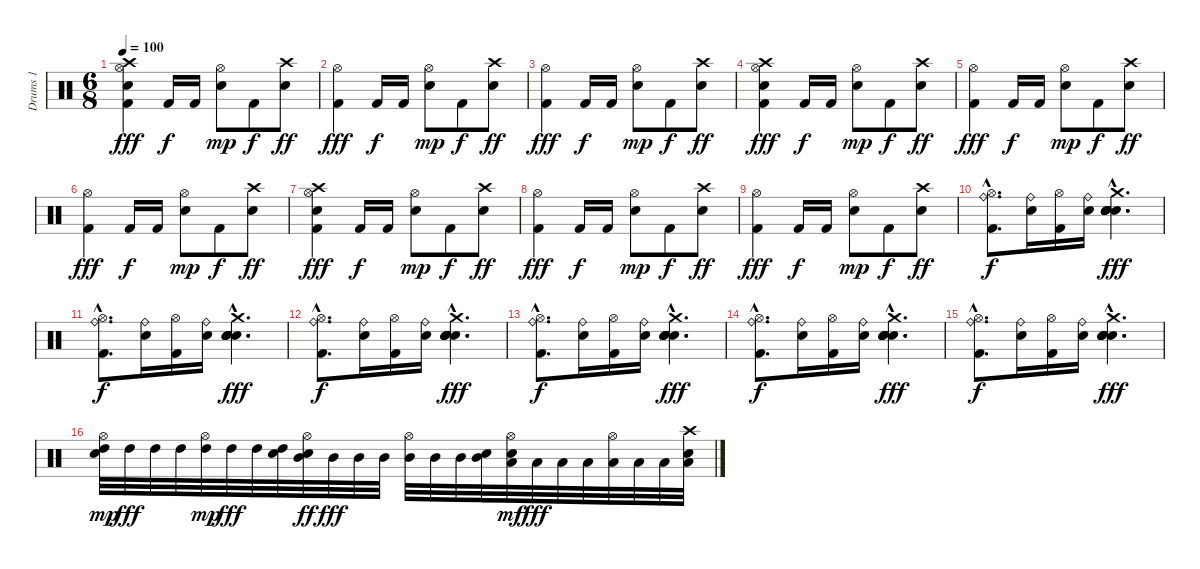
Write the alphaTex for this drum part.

\track ("Drums 1" "Drums 1") {instrument percussion}
\staff {score}
\articulation defaults
\ts (6 8)
\tempo 100
\clef neutral
\ks c
("Kick (hit) 2" "Snare (hit) 2" "Crash high (hit)" "Hi-Hat (open)").4{dy fff} "Kick (hit) 2".16{dy f} "Kick (hit) 2".16 ("Snare (hit) 2" "Hi-Hat (open)").8{dy mp} "Kick (hit) 2".8{dy f} ("Snare (hit) 2" "Crash high (hit)").8{dy ff} |
("Kick (hit) 2" "Hi-Hat (open)").4{dy fff} "Kick (hit) 2".16{dy f} "Kick (hit) 2".16 ("Snare (hit) 2" "Hi-Hat (open)").8{dy mp} "Kick (hit) 2".8{dy f} ("Snare (hit) 2" "Crash high (hit)").8{dy ff} |
("Kick (hit) 2" "Hi-Hat (open)").4{dy fff} "Kick (hit) 2".16{dy f} "Kick (hit) 2".16 ("Snare (hit) 2" "Hi-Hat (open)").8{dy mp} "Kick (hit) 2".8{dy f} ("Snare (hit) 2" "Crash high (hit)").8{dy ff} |
("Kick (hit) 2" "Snare (hit) 2" "Crash high (hit)" "Hi-Hat (open)").4{dy fff} "Kick (hit) 2".16{dy f} "Kick (hit) 2".16 ("Snare (hit) 2" "Hi-Hat (open)").8{dy mp} "Kick (hit) 2".8{dy f} ("Snare (hit) 2" "Crash high (hit)").8{dy ff} |
("Kick (hit) 2" "Hi-Hat (open)").4{dy fff} "Kick (hit) 2".16{dy f} "Kick (hit) 2".16 ("Snare (hit) 2" "Hi-Hat (open)").8{dy mp} "Kick (hit) 2".8{dy f} ("Snare (hit) 2" "Crash high (hit)").8{dy ff} |
("Kick (hit) 2" "Hi-Hat (open)").4{dy fff} "Kick (hit) 2".16{dy f} "Kick (hit) 2".16 ("Snare (hit) 2" "Hi-Hat (open)").8{dy mp} "Kick (hit) 2".8{dy f} ("Snare (hit) 2" "Crash high (hit)").8{dy ff} |
("Kick (hit) 2" "Snare (hit) 2" "Crash high (hit)" "Hi-Hat (open)").4{dy fff} "Kick (hit) 2".16{dy f} "Kick (hit) 2".16 ("Snare (hit) 2" "Hi-Hat (open)").8{dy mp} "Kick (hit) 2".8{dy f} ("Snare (hit) 2" "Crash high (hit)").8{dy ff} |
("Kick (hit) 2" "Hi-Hat (open)").4{dy fff} "Kick (hit) 2".16{dy f} "Kick (hit) 2".16 ("Snare (hit) 2" "Hi-Hat (open)").8{dy mp} "Kick (hit) 2".8{dy f} ("Snare (hit) 2" "Crash high (hit)").8{dy ff} |
("Kick (hit) 2" "Hi-Hat (open)").4{dy fff} "Kick (hit) 2".16{dy f} "Kick (hit) 2".16 ("Snare (hit) 2" "Hi-Hat (open)").8{dy mp} "Kick (hit) 2".8{dy f} ("Snare (hit) 2" "Crash high (hit)").8{dy ff} |
("Kick (hit) 2"{hac} "Ride (bell)"{hac} "Hi-Hat (open)"{hac}).8{d dy f} ("Snare (hit) 2" "Ride (bell)").16 ("Kick (hit) 2" "Hi-Hat (open)").16 ("Snare (hit) 2" "Ride (bell)").16 ("Snare (hit) 2"{hac} "Snare (hit) 2"{hac} "Snare (hit) 2"{hac} "Snare (hit) 2"{hac} "Snare (hit) 2"{hac} "Crash medium (hit)"{hac}).4{d bu 480 dy fff} |
("Kick (hit) 2"{hac} "Ride (bell)"{hac} "Hi-Hat (open)"{hac}).8{d dy f} ("Snare (hit) 2" "Ride (bell)").16 ("Kick (hit) 2" "Hi-Hat (open)").16 ("Snare (hit) 2" "Ride (bell)").16 ("Snare (hit) 2"{hac} "Snare (hit) 2"{hac} "Snare (hit) 2"{hac} "Snare (hit) 2"{hac} "Snare (hit) 2"{hac} "Crash medium (hit)"{hac}).4{d bu 480 dy fff} |
("Kick (hit) 2"{hac} "Ride (bell)"{hac} "Hi-Hat (open)"{hac}).8{d dy f} ("Snare (hit) 2" "Ride (bell)").16 ("Kick (hit) 2" "Hi-Hat (open)").16 ("Snare (hit) 2" "Ride (bell)").16 ("Snare (hit) 2"{hac} "Snare (hit) 2"{hac} "Snare (hit) 2"{hac} "Snare (hit) 2"{hac} "Snare (hit) 2"{hac} "Crash medium (hit)"{hac}).4{d bu 480 dy fff} |
("Kick (hit) 2"{hac} "Ride (bell)"{hac} "Hi-Hat (open)"{hac}).8{d dy f} ("Snare (hit) 2" "Ride (bell)").16 ("Kick (hit) 2" "Hi-Hat (open)").16 ("Snare (hit) 2" "Ride (bell)").16 ("Snare (hit) 2"{hac} "Snare (hit) 2"{hac} "Snare (hit) 2"{hac} "Snare (hit) 2"{hac} "Snare (hit) 2"{hac} "Crash medium (hit)"{hac}).4{d bu 480 dy fff} |
("Kick (hit) 2"{hac} "Ride (bell)"{hac} "Hi-Hat (open)"{hac}).8{d dy f} ("Snare (hit) 2" "Ride (bell)").16 ("Kick (hit) 2" "Hi-Hat (open)").16 ("Snare (hit) 2" "Ride (bell)").16 ("Snare (hit) 2"{hac} "Snare (hit) 2"{hac} "Snare (hit) 2"{hac} "Snare (hit) 2"{hac} "Snare (hit) 2"{hac} "Crash medium (hit)"{hac}).4{d bu 480 dy fff} |
("Kick (hit) 2"{hac} "Ride (bell)"{hac} "Hi-Hat (open)"{hac}).8{d dy f} ("Snare (hit) 2" "Ride (bell)").16 ("Kick (hit) 2" "Hi-Hat (open)").16 ("Snare (hit) 2" "Ride (bell)").16 ("Snare (hit) 2"{hac} "Snare (hit) 2"{hac} "Snare (hit) 2"{hac} "Snare (hit) 2"{hac} "Snare (hit) 2"{hac} "Crash medium (hit)"{hac}).4{d bu 480 dy fff} |
("High Tom (hit)" "Snare (hit) 2" "Hi-Hat (open)").32{dy mp volume 13} "High Tom (hit)".32{dy fff} "High Tom (hit)".32 "High Tom (hit)".32 ("High Tom (hit)" "Hi-Hat (open)").32{dy mp} "High Tom (hit)".32{dy fff} "High Tom (hit)".32 ("High Tom (hit)" "Snare (hit) 2").32 ("Mid Tom (hit)" "Snare (hit) 2" "Hi-Hat (open)").32{dy ff} "Mid Tom (hit)".32{dy fff} "Mid Tom (hit)".32 "Mid Tom (hit)".32 ("Mid Tom (hit)" "Hi-Hat (open)").32 "Mid Tom (hit)".32 "Mid Tom (hit)".32 ("Mid Tom (hit)" "Snare (hit) 2").32 ("Low Tom (hit)" "Snare (hit) 2" "Hi-Hat (open)").32{dy mf} "Low Tom (hit)".32{dy fff} "Low Tom (hit)".32 "Low Tom (hit)".32 ("Low Tom (hit)" "Hi-Hat (open)").32 "Low Tom (hit)".32 "Low Tom (hit)".32 ("Low Tom (hit)" "Snare (hit) 2" "Crash high (hit)").32
